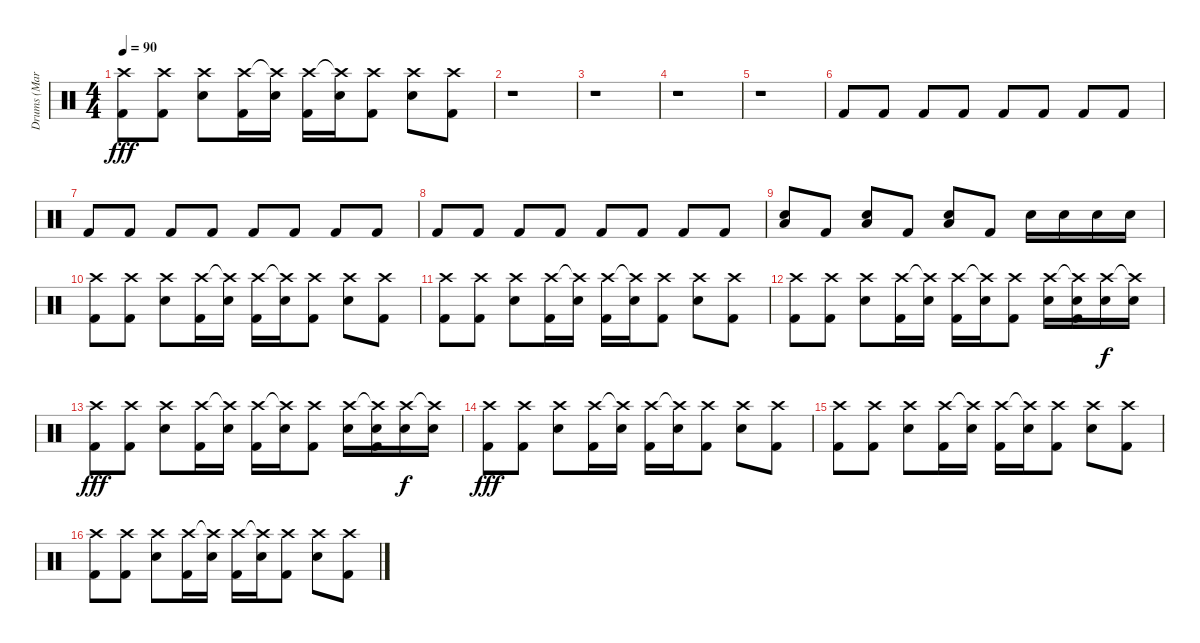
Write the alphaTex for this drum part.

\track ("Drums (Mark Escueta)" "Drums (Mar") {instrument percussion}
\staff {score}
\articulation defaults
\ts (4 4)
\tempo 90
\clef neutral
\ks c
("Crash high (hit)" "Kick (hit) 2").8{dy fff} ("Crash high (hit)" "Kick (hit) 2").8 ("Crash high (hit)" "Snare (hit) 2").8 ("Crash high (hit)" "Kick (hit) 2").16 ("Crash high (hit)"{t} "Snare (hit) 2").16 ("Crash high (hit)" "Kick (hit) 2").16 ("Crash high (hit)"{t} "Snare (hit) 2").16 ("Crash high (hit)" "Kick (hit) 2").8 ("Crash high (hit)" "Snare (hit) 2").8 ("Crash high (hit)" "Kick (hit) 2").8 |
r.1 |
r.1 |
r.1 |
r.1 |
"Kick (hit) 2".8 "Kick (hit) 2".8 "Kick (hit) 2".8 "Kick (hit) 2".8 "Kick (hit) 2".8 "Kick (hit) 2".8 "Kick (hit) 2".8 "Kick (hit) 2".8 |
"Kick (hit) 2".8 "Kick (hit) 2".8 "Kick (hit) 2".8 "Kick (hit) 2".8 "Kick (hit) 2".8 "Kick (hit) 2".8 "Kick (hit) 2".8 "Kick (hit) 2".8 |
"Kick (hit) 2".8 "Kick (hit) 2".8 "Kick (hit) 2".8 "Kick (hit) 2".8 "Kick (hit) 2".8 "Kick (hit) 2".8 "Kick (hit) 2".8 "Kick (hit) 2".8 |
("Snare (hit) 2" "Low Floor Tom (hit)").8 "Kick (hit) 2".8 ("Snare (hit) 2" "Low Floor Tom (hit)").8 "Kick (hit) 2".8 ("Snare (hit) 2" "Low Floor Tom (hit)").8 "Kick (hit) 2".8 "Snare (hit) 2".16 "Snare (hit) 2".16 "Snare (hit) 2".16 "Snare (hit) 2".16 |
("Crash high (hit)" "Kick (hit) 2").8 ("Crash high (hit)" "Kick (hit) 2").8 ("Crash high (hit)" "Snare (hit) 2").8 ("Crash high (hit)" "Kick (hit) 2").16 ("Crash high (hit)"{t} "Snare (hit) 2").16 ("Crash high (hit)" "Kick (hit) 2").16 ("Crash high (hit)"{t} "Snare (hit) 2").16 ("Crash high (hit)" "Kick (hit) 2").8 ("Crash high (hit)" "Snare (hit) 2").8 ("Crash high (hit)" "Kick (hit) 2").8 |
("Crash high (hit)" "Kick (hit) 2").8 ("Crash high (hit)" "Kick (hit) 2").8 ("Crash high (hit)" "Snare (hit) 2").8 ("Crash high (hit)" "Kick (hit) 2").16 ("Crash high (hit)"{t} "Snare (hit) 2").16 ("Crash high (hit)" "Kick (hit) 2").16 ("Crash high (hit)"{t} "Snare (hit) 2").16 ("Crash high (hit)" "Kick (hit) 2").8 ("Crash high (hit)" "Snare (hit) 2").8 ("Crash high (hit)" "Kick (hit) 2").8 |
("Crash high (hit)" "Kick (hit) 2").8 ("Crash high (hit)" "Kick (hit) 2").8 ("Crash high (hit)" "Snare (hit) 2").8 ("Crash high (hit)" "Kick (hit) 2").16 ("Crash high (hit)"{t} "Snare (hit) 2").16 ("Crash high (hit)" "Kick (hit) 2").16 ("Crash high (hit)"{t} "Snare (hit) 2").16 ("Crash high (hit)" "Kick (hit) 2").8 ("Crash high (hit)" "Snare (hit) 2").16 ("Crash high (hit)"{t} "Snare (hit) 2" "Kick (hit) 2").16 ("Crash high (hit)" "Snare (hit) 2").16{dy f} ("Crash high (hit)"{t} "Snare (hit) 2").16 |
("Crash high (hit)" "Kick (hit) 2").8{dy fff} ("Crash high (hit)" "Kick (hit) 2").8 ("Crash high (hit)" "Snare (hit) 2").8 ("Crash high (hit)" "Kick (hit) 2").16 ("Crash high (hit)"{t} "Snare (hit) 2").16 ("Crash high (hit)" "Kick (hit) 2").16 ("Crash high (hit)"{t} "Snare (hit) 2").16 ("Crash high (hit)" "Kick (hit) 2").8 ("Crash high (hit)" "Snare (hit) 2").16 ("Crash high (hit)"{t} "Snare (hit) 2" "Kick (hit) 2").16 ("Crash high (hit)" "Snare (hit) 2").16{dy f} ("Crash high (hit)"{t} "Snare (hit) 2").16 |
("Crash high (hit)" "Kick (hit) 2").8{dy fff} ("Crash high (hit)" "Kick (hit) 2").8 ("Crash high (hit)" "Snare (hit) 2").8 ("Crash high (hit)" "Kick (hit) 2").16 ("Crash high (hit)"{t} "Snare (hit) 2").16 ("Crash high (hit)" "Kick (hit) 2").16 ("Crash high (hit)"{t} "Snare (hit) 2").16 ("Crash high (hit)" "Kick (hit) 2").8 ("Crash high (hit)" "Snare (hit) 2").8 ("Crash high (hit)" "Kick (hit) 2").8 |
("Crash high (hit)" "Kick (hit) 2").8 ("Crash high (hit)" "Kick (hit) 2").8 ("Crash high (hit)" "Snare (hit) 2").8 ("Crash high (hit)" "Kick (hit) 2").16 ("Crash high (hit)"{t} "Snare (hit) 2").16 ("Crash high (hit)" "Kick (hit) 2").16 ("Crash high (hit)"{t} "Snare (hit) 2").16 ("Crash high (hit)" "Kick (hit) 2").8 ("Crash high (hit)" "Snare (hit) 2").8 ("Crash high (hit)" "Kick (hit) 2").8 |
("Crash high (hit)" "Kick (hit) 2").8 ("Crash high (hit)" "Kick (hit) 2").8 ("Crash high (hit)" "Snare (hit) 2").8 ("Crash high (hit)" "Kick (hit) 2").16 ("Crash high (hit)"{t} "Snare (hit) 2").16 ("Crash high (hit)" "Kick (hit) 2").16 ("Crash high (hit)"{t} "Snare (hit) 2").16 ("Crash high (hit)" "Kick (hit) 2").8 ("Crash high (hit)" "Snare (hit) 2").8 ("Crash high (hit)" "Kick (hit) 2").8
